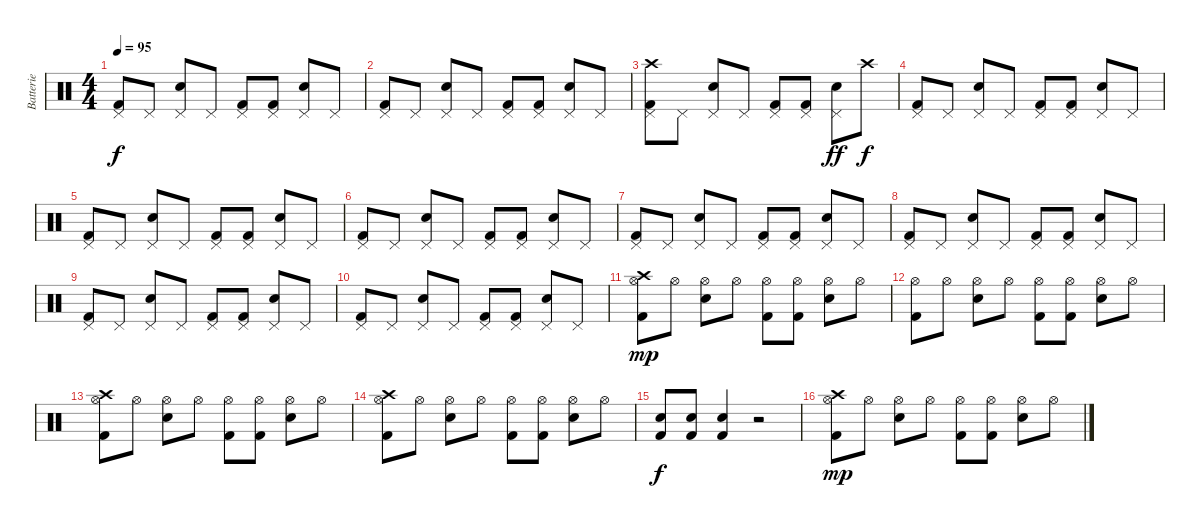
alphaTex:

\track ("Batterie" "Batterie") {instrument percussion}
\staff {score}
\articulation defaults
\ts (4 4)
\tempo 95
\clef neutral
\ks c
("Pedal Hi-Hat (hit)" "Kick (hit) 2").8{dy f} "Pedal Hi-Hat (hit)".8 ("Pedal Hi-Hat (hit)" "Electric Snare (hit)").8 "Pedal Hi-Hat (hit)".8 ("Pedal Hi-Hat (hit)" "Kick (hit) 2").8 ("Pedal Hi-Hat (hit)" "Kick (hit) 2").8 ("Pedal Hi-Hat (hit)" "Electric Snare (hit)").8 "Pedal Hi-Hat (hit)".8 |
("Pedal Hi-Hat (hit)" "Kick (hit) 2").8 "Pedal Hi-Hat (hit)".8 ("Pedal Hi-Hat (hit)" "Electric Snare (hit)").8 "Pedal Hi-Hat (hit)".8 ("Pedal Hi-Hat (hit)" "Kick (hit) 2").8 ("Pedal Hi-Hat (hit)" "Kick (hit) 2").8 ("Pedal Hi-Hat (hit)" "Electric Snare (hit)").8 "Pedal Hi-Hat (hit)".8 |
("Pedal Hi-Hat (hit)" "Kick (hit) 2" "Crash high (hit)").8 "Pedal Hi-Hat (hit)".8 ("Pedal Hi-Hat (hit)" "Electric Snare (hit)").8 "Pedal Hi-Hat (hit)".8 ("Pedal Hi-Hat (hit)" "Kick (hit) 2").8 ("Pedal Hi-Hat (hit)" "Kick (hit) 2").8 ("Pedal Hi-Hat (hit)" "Electric Snare (hit)").8{dy ff} "Crash high (hit)".8{dy f} |
("Pedal Hi-Hat (hit)" "Kick (hit) 2").8 "Pedal Hi-Hat (hit)".8 ("Pedal Hi-Hat (hit)" "Electric Snare (hit)").8 "Pedal Hi-Hat (hit)".8 ("Pedal Hi-Hat (hit)" "Kick (hit) 2").8 ("Pedal Hi-Hat (hit)" "Kick (hit) 2").8 ("Pedal Hi-Hat (hit)" "Electric Snare (hit)").8 "Pedal Hi-Hat (hit)".8 |
("Pedal Hi-Hat (hit)" "Kick (hit) 2").8 "Pedal Hi-Hat (hit)".8 ("Pedal Hi-Hat (hit)" "Electric Snare (hit)").8 "Pedal Hi-Hat (hit)".8 ("Pedal Hi-Hat (hit)" "Kick (hit) 2").8 ("Pedal Hi-Hat (hit)" "Kick (hit) 2").8 ("Pedal Hi-Hat (hit)" "Electric Snare (hit)").8 "Pedal Hi-Hat (hit)".8 |
("Pedal Hi-Hat (hit)" "Kick (hit) 2").8 "Pedal Hi-Hat (hit)".8 ("Pedal Hi-Hat (hit)" "Electric Snare (hit)").8 "Pedal Hi-Hat (hit)".8 ("Pedal Hi-Hat (hit)" "Kick (hit) 2").8 ("Pedal Hi-Hat (hit)" "Kick (hit) 2").8 ("Pedal Hi-Hat (hit)" "Electric Snare (hit)").8 "Pedal Hi-Hat (hit)".8 |
("Pedal Hi-Hat (hit)" "Kick (hit) 2").8 "Pedal Hi-Hat (hit)".8 ("Pedal Hi-Hat (hit)" "Electric Snare (hit)").8 "Pedal Hi-Hat (hit)".8 ("Pedal Hi-Hat (hit)" "Kick (hit) 2").8 ("Pedal Hi-Hat (hit)" "Kick (hit) 2").8 ("Pedal Hi-Hat (hit)" "Electric Snare (hit)").8 "Pedal Hi-Hat (hit)".8 |
("Pedal Hi-Hat (hit)" "Kick (hit) 2").8 "Pedal Hi-Hat (hit)".8 ("Pedal Hi-Hat (hit)" "Electric Snare (hit)").8 "Pedal Hi-Hat (hit)".8 ("Pedal Hi-Hat (hit)" "Kick (hit) 2").8 ("Pedal Hi-Hat (hit)" "Kick (hit) 2").8 ("Pedal Hi-Hat (hit)" "Electric Snare (hit)").8 "Pedal Hi-Hat (hit)".8 |
("Pedal Hi-Hat (hit)" "Kick (hit) 2").8 "Pedal Hi-Hat (hit)".8 ("Pedal Hi-Hat (hit)" "Electric Snare (hit)").8 "Pedal Hi-Hat (hit)".8 ("Pedal Hi-Hat (hit)" "Kick (hit) 2").8 ("Pedal Hi-Hat (hit)" "Kick (hit) 2").8 ("Pedal Hi-Hat (hit)" "Electric Snare (hit)").8 "Pedal Hi-Hat (hit)".8 |
("Pedal Hi-Hat (hit)" "Kick (hit) 2").8 "Pedal Hi-Hat (hit)".8 ("Pedal Hi-Hat (hit)" "Electric Snare (hit)").8 "Pedal Hi-Hat (hit)".8 ("Pedal Hi-Hat (hit)" "Kick (hit) 2").8 ("Pedal Hi-Hat (hit)" "Kick (hit) 2").8 ("Pedal Hi-Hat (hit)" "Electric Snare (hit)").8 "Pedal Hi-Hat (hit)".8 |
("Hi-Hat (open)" "Kick (hit) 2" "Crash high (hit)").8{dy mp} "Hi-Hat (open)".8 ("Hi-Hat (open)" "Electric Snare (hit)").8 "Hi-Hat (open)".8 ("Hi-Hat (open)" "Kick (hit) 2").8 ("Hi-Hat (open)" "Kick (hit) 2").8 ("Hi-Hat (open)" "Electric Snare (hit)").8 "Hi-Hat (open)".8 |
("Hi-Hat (open)" "Kick (hit) 2").8 "Hi-Hat (open)".8 ("Hi-Hat (open)" "Electric Snare (hit)").8 "Hi-Hat (open)".8 ("Hi-Hat (open)" "Kick (hit) 2").8 ("Hi-Hat (open)" "Kick (hit) 2").8 ("Hi-Hat (open)" "Electric Snare (hit)").8 "Hi-Hat (open)".8 |
("Hi-Hat (open)" "Kick (hit) 2" "Crash high (hit)").8 "Hi-Hat (open)".8 ("Hi-Hat (open)" "Electric Snare (hit)").8 "Hi-Hat (open)".8 ("Hi-Hat (open)" "Kick (hit) 2").8 ("Hi-Hat (open)" "Kick (hit) 2").8 ("Hi-Hat (open)" "Electric Snare (hit)").8 "Hi-Hat (open)".8 |
("Hi-Hat (open)" "Kick (hit) 2" "Crash high (hit)").8 "Hi-Hat (open)".8 ("Hi-Hat (open)" "Electric Snare (hit)").8 "Hi-Hat (open)".8 ("Hi-Hat (open)" "Kick (hit) 2").8 ("Hi-Hat (open)" "Kick (hit) 2").8 ("Hi-Hat (open)" "Electric Snare (hit)").8 "Hi-Hat (open)".8 |
("Kick (hit) 2" "Electric Snare (hit)").8{dy f} ("Kick (hit) 2" "Electric Snare (hit)").8 ("Kick (hit) 2" "Electric Snare (hit)").4 r.2 |
("Hi-Hat (open)" "Kick (hit) 2" "Crash high (hit)").8{dy mp} "Hi-Hat (open)".8 ("Hi-Hat (open)" "Electric Snare (hit)").8 "Hi-Hat (open)".8 ("Hi-Hat (open)" "Kick (hit) 2").8 ("Hi-Hat (open)" "Kick (hit) 2").8 ("Hi-Hat (open)" "Electric Snare (hit)").8 "Hi-Hat (open)".8
